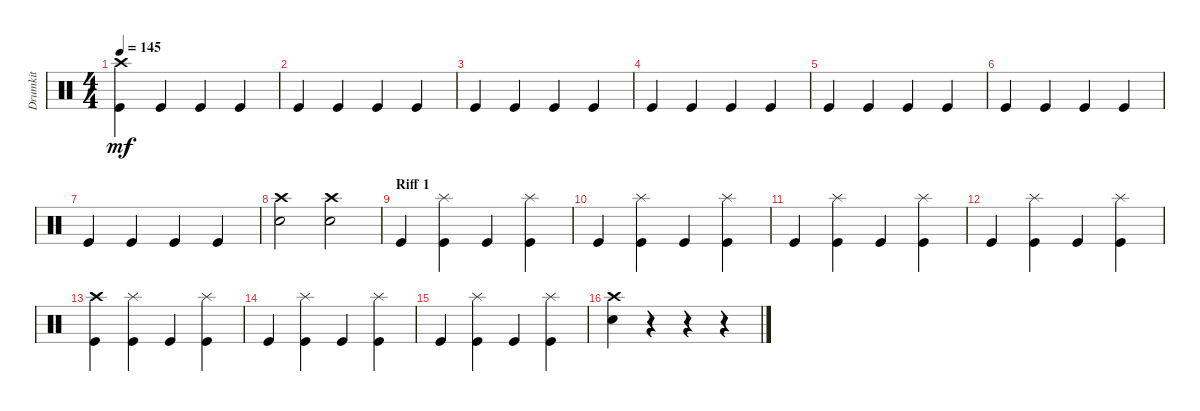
\track ("Drumkit" "Drumkit") {instrument percussion}
\staff {score}
\articulation defaults
\ts (4 4)
\tempo 145
\clef neutral
\ks c
("Kick (hit)" "Crash high (hit)").4{dy mf} "Kick (hit)".4 "Kick (hit)".4 "Kick (hit)".4 |
"Kick (hit)".4 "Kick (hit)".4 "Kick (hit)".4 "Kick (hit)".4 |
"Kick (hit)".4 "Kick (hit)".4 "Kick (hit)".4 "Kick (hit)".4 |
"Kick (hit)".4 "Kick (hit)".4 "Kick (hit)".4 "Kick (hit)".4 |
"Kick (hit)".4 "Kick (hit)".4 "Kick (hit)".4 "Kick (hit)".4 |
"Kick (hit)".4 "Kick (hit)".4 "Kick (hit)".4 "Kick (hit)".4 |
"Kick (hit)".4 "Kick (hit)".4 "Kick (hit)".4 "Kick (hit)".4 |
("Crash high (hit)" "Electric Snare (hit)").2 ("Crash high (hit)" "Electric Snare (hit)").2 |
\section ("" "Riff 1")
"Kick (hit)".4 ("Kick (hit)" "Splash (hit)").4 "Kick (hit)".4 ("Kick (hit)" "Splash (hit)").4 |
"Kick (hit)".4 ("Kick (hit)" "Splash (hit)").4 "Kick (hit)".4 ("Kick (hit)" "Splash (hit)").4 |
"Kick (hit)".4 ("Kick (hit)" "Splash (hit)").4 "Kick (hit)".4 ("Kick (hit)" "Splash (hit)").4 |
"Kick (hit)".4 ("Kick (hit)" "Splash (hit)").4 "Kick (hit)".4 ("Kick (hit)" "Splash (hit)").4 |
("Kick (hit)" "Crash high (hit)").4 ("Kick (hit)" "Splash (hit)").4 "Kick (hit)".4 ("Kick (hit)" "Splash (hit)").4 |
"Kick (hit)".4 ("Kick (hit)" "Splash (hit)").4 "Kick (hit)".4 ("Kick (hit)" "Splash (hit)").4 |
"Kick (hit)".4 ("Kick (hit)" "Splash (hit)").4 "Kick (hit)".4 ("Kick (hit)" "Splash (hit)").4 |
("Crash high (hit)" "Electric Snare (hit)").4 r.4 r.4 r.4
